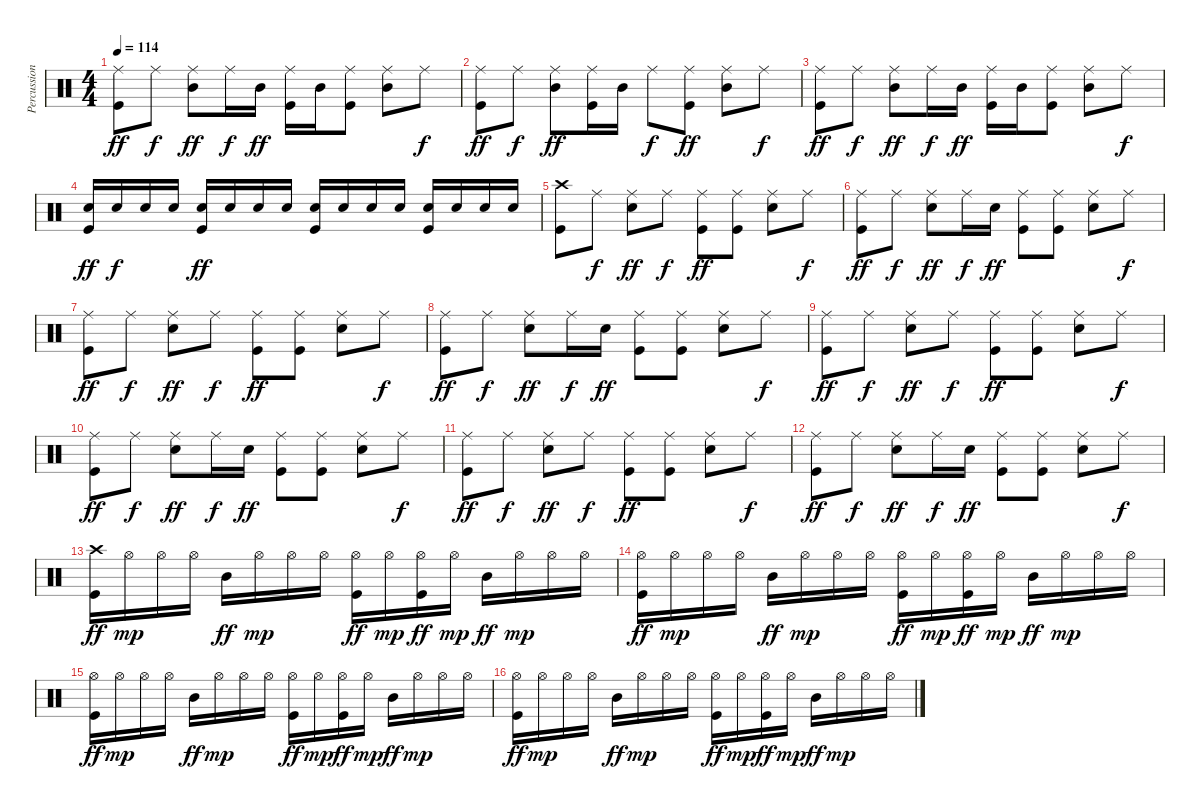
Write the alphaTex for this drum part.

\track ("Percussion" "Percussion") {instrument percussion}
\staff {score}
\articulation defaults
\ts (4 4)
\tempo 114
\clef neutral
\ks c
("Ride (middle)" "Kick (hit)").8{dy ff} "Ride (middle)".8{dy f} ("Ride (middle)" "Mid Tom (hit)").8{dy ff} "Ride (middle)".16{dy f} "Mid Tom (hit)".16{dy ff} ("Ride (middle)" "Kick (hit)").16 "Mid Tom (hit)".16 ("Ride (middle)" "Kick (hit)").8 ("Ride (middle)" "Mid Tom (hit)").8 "Ride (middle)".8{dy f} |
("Ride (middle)" "Kick (hit)").8{dy ff} "Ride (middle)".8{dy f} ("Ride (middle)" "Mid Tom (hit)").8{dy ff} ("Ride (middle)" "Kick (hit)").16 "Mid Tom (hit)".16 "Ride (middle)".8{dy f} ("Ride (middle)" "Kick (hit)").8{dy ff} ("Ride (middle)" "Mid Tom (hit)").8 "Ride (middle)".8{dy f} |
("Ride (middle)" "Kick (hit)").8{dy ff} "Ride (middle)".8{dy f} ("Ride (middle)" "Mid Tom (hit)").8{dy ff} "Ride (middle)".16{dy f} "Mid Tom (hit)".16{dy ff} ("Ride (middle)" "Kick (hit)").16 "Mid Tom (hit)".16 ("Ride (middle)" "Kick (hit)").8 ("Ride (middle)" "Mid Tom (hit)").8 "Ride (middle)".8{dy f} |
("Snare (hit) 2" "Kick (hit)").16{dy ff} "Snare (hit) 2".16{dy f} "Snare (hit) 2".16 "Snare (hit) 2".16 ("Snare (hit) 2" "Kick (hit)").16{dy ff} "Snare (hit) 2".16 "Snare (hit) 2".16 "Snare (hit) 2".16 ("Snare (hit) 2" "Kick (hit)").16 "Snare (hit) 2".16 "Snare (hit) 2".16 "Snare (hit) 2".16 ("Snare (hit) 2" "Kick (hit)").16 "Snare (hit) 2".16 "Snare (hit) 2".16 "Snare (hit) 2".16 |
("Crash high (hit)" "Kick (hit)").8 "Ride (middle)".8{dy f} ("Ride (middle)" "Snare (hit) 2").8{dy ff} "Ride (middle)".8{dy f} ("Ride (middle)" "Kick (hit)").8{dy ff} ("Ride (middle)" "Kick (hit)").8 ("Ride (middle)" "Snare (hit) 2").8 "Ride (middle)".8{dy f} |
("Ride (middle)" "Kick (hit)").8{dy ff} "Ride (middle)".8{dy f} ("Ride (middle)" "Snare (hit) 2").8{dy ff} "Ride (middle)".16{dy f} "Snare (hit) 2".16{dy ff} ("Ride (middle)" "Kick (hit)").8 ("Ride (middle)" "Kick (hit)").8 ("Ride (middle)" "Snare (hit) 2").8 "Ride (middle)".8{dy f} |
("Ride (middle)" "Kick (hit)").8{dy ff} "Ride (middle)".8{dy f} ("Ride (middle)" "Snare (hit) 2").8{dy ff} "Ride (middle)".8{dy f} ("Ride (middle)" "Kick (hit)").8{dy ff} ("Ride (middle)" "Kick (hit)").8 ("Ride (middle)" "Snare (hit) 2").8 "Ride (middle)".8{dy f} |
("Ride (middle)" "Kick (hit)").8{dy ff} "Ride (middle)".8{dy f} ("Ride (middle)" "Snare (hit) 2").8{dy ff} "Ride (middle)".16{dy f} "Snare (hit) 2".16{dy ff} ("Ride (middle)" "Kick (hit)").8 ("Ride (middle)" "Kick (hit)").8 ("Ride (middle)" "Snare (hit) 2").8 "Ride (middle)".8{dy f} |
("Ride (middle)" "Kick (hit)").8{dy ff} "Ride (middle)".8{dy f} ("Ride (middle)" "Snare (hit) 2").8{dy ff} "Ride (middle)".8{dy f} ("Ride (middle)" "Kick (hit)").8{dy ff} ("Ride (middle)" "Kick (hit)").8 ("Ride (middle)" "Snare (hit) 2").8 "Ride (middle)".8{dy f} |
("Ride (middle)" "Kick (hit)").8{dy ff} "Ride (middle)".8{dy f} ("Ride (middle)" "Snare (hit) 2").8{dy ff} "Ride (middle)".16{dy f} "Snare (hit) 2".16{dy ff} ("Ride (middle)" "Kick (hit)").8 ("Ride (middle)" "Kick (hit)").8 ("Ride (middle)" "Snare (hit) 2").8 "Ride (middle)".8{dy f} |
("Ride (middle)" "Kick (hit)").8{dy ff} "Ride (middle)".8{dy f} ("Ride (middle)" "Snare (hit) 2").8{dy ff} "Ride (middle)".8{dy f} ("Ride (middle)" "Kick (hit)").8{dy ff} ("Ride (middle)" "Kick (hit)").8 ("Ride (middle)" "Snare (hit) 2").8 "Ride (middle)".8{dy f} |
("Ride (middle)" "Kick (hit)").8{dy ff} "Ride (middle)".8{dy f} ("Ride (middle)" "Snare (hit) 2").8{dy ff} "Ride (middle)".16{dy f} "Snare (hit) 2".16{dy ff} ("Ride (middle)" "Kick (hit)").8 ("Ride (middle)" "Kick (hit)").8 ("Ride (middle)" "Snare (hit) 2").8 "Ride (middle)".8{dy f} |
("Crash high (hit)" "Kick (hit)").16{dy ff} "Hi-Hat (open)".16{dy mp} "Hi-Hat (open)".16 "Hi-Hat (open)".16 "Mid Tom (hit)".16{dy ff} "Hi-Hat (open)".16{dy mp} "Hi-Hat (open)".16 "Hi-Hat (open)".16 ("Hi-Hat (open)" "Kick (hit)").16{dy ff} "Hi-Hat (open)".16{dy mp} ("Hi-Hat (open)" "Kick (hit)").16{dy ff} "Hi-Hat (open)".16{dy mp} "Mid Tom (hit)".16{dy ff} "Hi-Hat (open)".16{dy mp} "Hi-Hat (open)".16 "Hi-Hat (open)".16 |
("Hi-Hat (open)" "Kick (hit)").16{dy ff} "Hi-Hat (open)".16{dy mp} "Hi-Hat (open)".16 "Hi-Hat (open)".16 "Mid Tom (hit)".16{dy ff} "Hi-Hat (open)".16{dy mp} "Hi-Hat (open)".16 "Hi-Hat (open)".16 ("Hi-Hat (open)" "Kick (hit)").16{dy ff} "Hi-Hat (open)".16{dy mp} ("Hi-Hat (open)" "Kick (hit)").16{dy ff} "Hi-Hat (open)".16{dy mp} "Mid Tom (hit)".16{dy ff} "Hi-Hat (open)".16{dy mp} "Hi-Hat (open)".16 "Hi-Hat (open)".16 |
("Hi-Hat (open)" "Kick (hit)").16{dy ff} "Hi-Hat (open)".16{dy mp} "Hi-Hat (open)".16 "Hi-Hat (open)".16 "Mid Tom (hit)".16{dy ff} "Hi-Hat (open)".16{dy mp} "Hi-Hat (open)".16 "Hi-Hat (open)".16 ("Hi-Hat (open)" "Kick (hit)").16{dy ff} "Hi-Hat (open)".16{dy mp} ("Hi-Hat (open)" "Kick (hit)").16{dy ff} "Hi-Hat (open)".16{dy mp} "Mid Tom (hit)".16{dy ff} "Hi-Hat (open)".16{dy mp} "Hi-Hat (open)".16 "Hi-Hat (open)".16 |
("Hi-Hat (open)" "Kick (hit)").16{dy ff} "Hi-Hat (open)".16{dy mp} "Hi-Hat (open)".16 "Hi-Hat (open)".16 "Mid Tom (hit)".16{dy ff} "Hi-Hat (open)".16{dy mp} "Hi-Hat (open)".16 "Hi-Hat (open)".16 ("Hi-Hat (open)" "Kick (hit)").16{dy ff} "Hi-Hat (open)".16{dy mp} ("Hi-Hat (open)" "Kick (hit)").16{dy ff} "Hi-Hat (open)".16{dy mp} "Mid Tom (hit)".16{dy ff} "Hi-Hat (open)".16{dy mp} "Hi-Hat (open)".16 "Hi-Hat (open)".16
